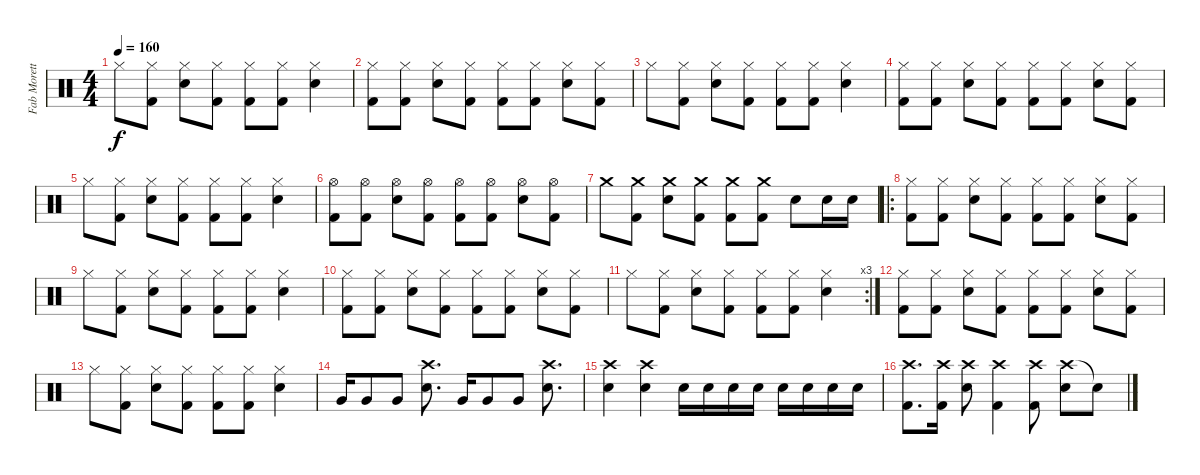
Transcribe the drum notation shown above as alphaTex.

\track ("Fab Moretti " "Fab Morett") {instrument percussion}
\staff {score}
\articulation defaults
\ts (4 4)
\tempo 160
\clef neutral
\ks c "Hi-Hat (closed)".8{dy f}
("Kick (hit) 2" "Hi-Hat (closed)").8 ("Electric Snare (hit)" "Hi-Hat (closed)").8 ("Kick (hit) 2" "Hi-Hat (closed)").8 ("Kick (hit) 2" "Hi-Hat (closed)").8 ("Kick (hit) 2" "Hi-Hat (closed)").8 ("Electric Snare (hit)" "Hi-Hat (closed)").4 |
("Kick (hit) 2" "Hi-Hat (closed)").8 ("Kick (hit) 2" "Hi-Hat (closed)").8 ("Electric Snare (hit)" "Hi-Hat (closed)").8 ("Kick (hit) 2" "Hi-Hat (closed)").8 ("Kick (hit) 2" "Hi-Hat (closed)").8 ("Kick (hit) 2" "Hi-Hat (closed)").8 ("Electric Snare (hit)" "Hi-Hat (closed)").8 ("Kick (hit) 2" "Hi-Hat (closed)").8 |
"Hi-Hat (closed)".8 ("Kick (hit) 2" "Hi-Hat (closed)").8 ("Electric Snare (hit)" "Hi-Hat (closed)").8 ("Kick (hit) 2" "Hi-Hat (closed)").8 ("Kick (hit) 2" "Hi-Hat (closed)").8 ("Kick (hit) 2" "Hi-Hat (closed)").8 ("Electric Snare (hit)" "Hi-Hat (closed)").4 |
("Kick (hit) 2" "Hi-Hat (closed)").8 ("Kick (hit) 2" "Hi-Hat (closed)").8 ("Electric Snare (hit)" "Hi-Hat (closed)").8 ("Kick (hit) 2" "Hi-Hat (closed)").8 ("Kick (hit) 2" "Hi-Hat (closed)").8 ("Kick (hit) 2" "Hi-Hat (closed)").8 ("Electric Snare (hit)" "Hi-Hat (closed)").8 ("Kick (hit) 2" "Hi-Hat (closed)").8 |
"Hi-Hat (closed)".8 ("Kick (hit) 2" "Hi-Hat (closed)").8 ("Electric Snare (hit)" "Hi-Hat (closed)").8 ("Kick (hit) 2" "Hi-Hat (closed)").8 ("Kick (hit) 2" "Hi-Hat (closed)").8 ("Kick (hit) 2" "Hi-Hat (closed)").8 ("Electric Snare (hit)" "Hi-Hat (closed)").4 |
("Kick (hit) 2" "Hi-Hat (open)").8 ("Kick (hit) 2" "Hi-Hat (open)").8 ("Electric Snare (hit)" "Hi-Hat (open)").8 ("Kick (hit) 2" "Hi-Hat (open)").8 ("Kick (hit) 2" "Hi-Hat (open)").8 ("Kick (hit) 2" "Hi-Hat (open)").8 ("Electric Snare (hit)" "Hi-Hat (open)").8 ("Kick (hit) 2" "Hi-Hat (open)").8 |
"Crash medium (hit)".8 ("Kick (hit) 2" "Crash medium (hit)").8 ("Electric Snare (hit)" "Crash medium (hit)").8 ("Kick (hit) 2" "Crash medium (hit)").8 ("Kick (hit) 2" "Crash medium (hit)").8 ("Kick (hit) 2" "Crash medium (hit)").8 "Electric Snare (hit)".8 "Electric Snare (hit)".16 "Electric Snare (hit)".16 |
\ro
("Kick (hit) 2" "Hi-Hat (closed)").8 ("Kick (hit) 2" "Hi-Hat (closed)").8 ("Electric Snare (hit)" "Hi-Hat (closed)").8 ("Kick (hit) 2" "Hi-Hat (closed)").8 ("Kick (hit) 2" "Hi-Hat (closed)").8 ("Kick (hit) 2" "Hi-Hat (closed)").8 ("Electric Snare (hit)" "Hi-Hat (closed)").8 ("Kick (hit) 2" "Hi-Hat (closed)").8 |
"Hi-Hat (closed)".8 ("Kick (hit) 2" "Hi-Hat (closed)").8 ("Electric Snare (hit)" "Hi-Hat (closed)").8 ("Kick (hit) 2" "Hi-Hat (closed)").8 ("Kick (hit) 2" "Hi-Hat (closed)").8 ("Kick (hit) 2" "Hi-Hat (closed)").8 ("Electric Snare (hit)" "Hi-Hat (closed)").4 |
("Kick (hit) 2" "Hi-Hat (closed)").8 ("Kick (hit) 2" "Hi-Hat (closed)").8 ("Electric Snare (hit)" "Hi-Hat (closed)").8 ("Kick (hit) 2" "Hi-Hat (closed)").8 ("Kick (hit) 2" "Hi-Hat (closed)").8 ("Kick (hit) 2" "Hi-Hat (closed)").8 ("Electric Snare (hit)" "Hi-Hat (closed)").8 ("Kick (hit) 2" "Hi-Hat (closed)").8 |
\rc 3 "Hi-Hat (closed)".8
("Kick (hit) 2" "Hi-Hat (closed)").8 ("Electric Snare (hit)" "Hi-Hat (closed)").8 ("Kick (hit) 2" "Hi-Hat (closed)").8 ("Kick (hit) 2" "Hi-Hat (closed)").8 ("Kick (hit) 2" "Hi-Hat (closed)").8 ("Electric Snare (hit)" "Hi-Hat (closed)").4 |
("Kick (hit) 2" "Hi-Hat (closed)").8 ("Kick (hit) 2" "Hi-Hat (closed)").8 ("Electric Snare (hit)" "Hi-Hat (closed)").8 ("Kick (hit) 2" "Hi-Hat (closed)").8 ("Kick (hit) 2" "Hi-Hat (closed)").8 ("Kick (hit) 2" "Hi-Hat (closed)").8 ("Electric Snare (hit)" "Hi-Hat (closed)").8 ("Kick (hit) 2" "Hi-Hat (closed)").8 |
"Hi-Hat (closed)".8 ("Kick (hit) 2" "Hi-Hat (closed)").8 ("Electric Snare (hit)" "Hi-Hat (closed)").8 ("Kick (hit) 2" "Hi-Hat (closed)").8 ("Kick (hit) 2" "Hi-Hat (closed)").8 ("Kick (hit) 2" "Hi-Hat (closed)").8 ("Electric Snare (hit)" "Hi-Hat (closed)").4 |
"Very Low Tom (hit)".16 "Very Low Tom (hit)".8 "Very Low Tom (hit)".8 ("Crash high (hit)" "Electric Snare (hit)").8{d} "Very Low Tom (hit)".16 "Very Low Tom (hit)".8 "Very Low Tom (hit)".8 ("Crash high (hit)" "Electric Snare (hit)").8{d} |
("Crash high (hit)" "Electric Snare (hit)").4 ("Crash high (hit)" "Electric Snare (hit)").4 "Electric Snare (hit)".16 "Electric Snare (hit)".16 "Electric Snare (hit)".16 "Electric Snare (hit)".16 "Electric Snare (hit)".16 "Electric Snare (hit)".16 "Electric Snare (hit)".16 "Electric Snare (hit)".16 |
("Crash high (hit)" "Kick (hit) 2").8{d} ("Crash high (hit)" "Kick (hit) 2").16 ("Crash high (hit)" "Electric Snare (hit)").8 ("Crash high (hit)" "Kick (hit) 2").4 ("Crash high (hit)" "Kick (hit) 2").8 ("Crash high (hit)" "Electric Snare (hit)").8 "Electric Snare (hit)"{t}.8
